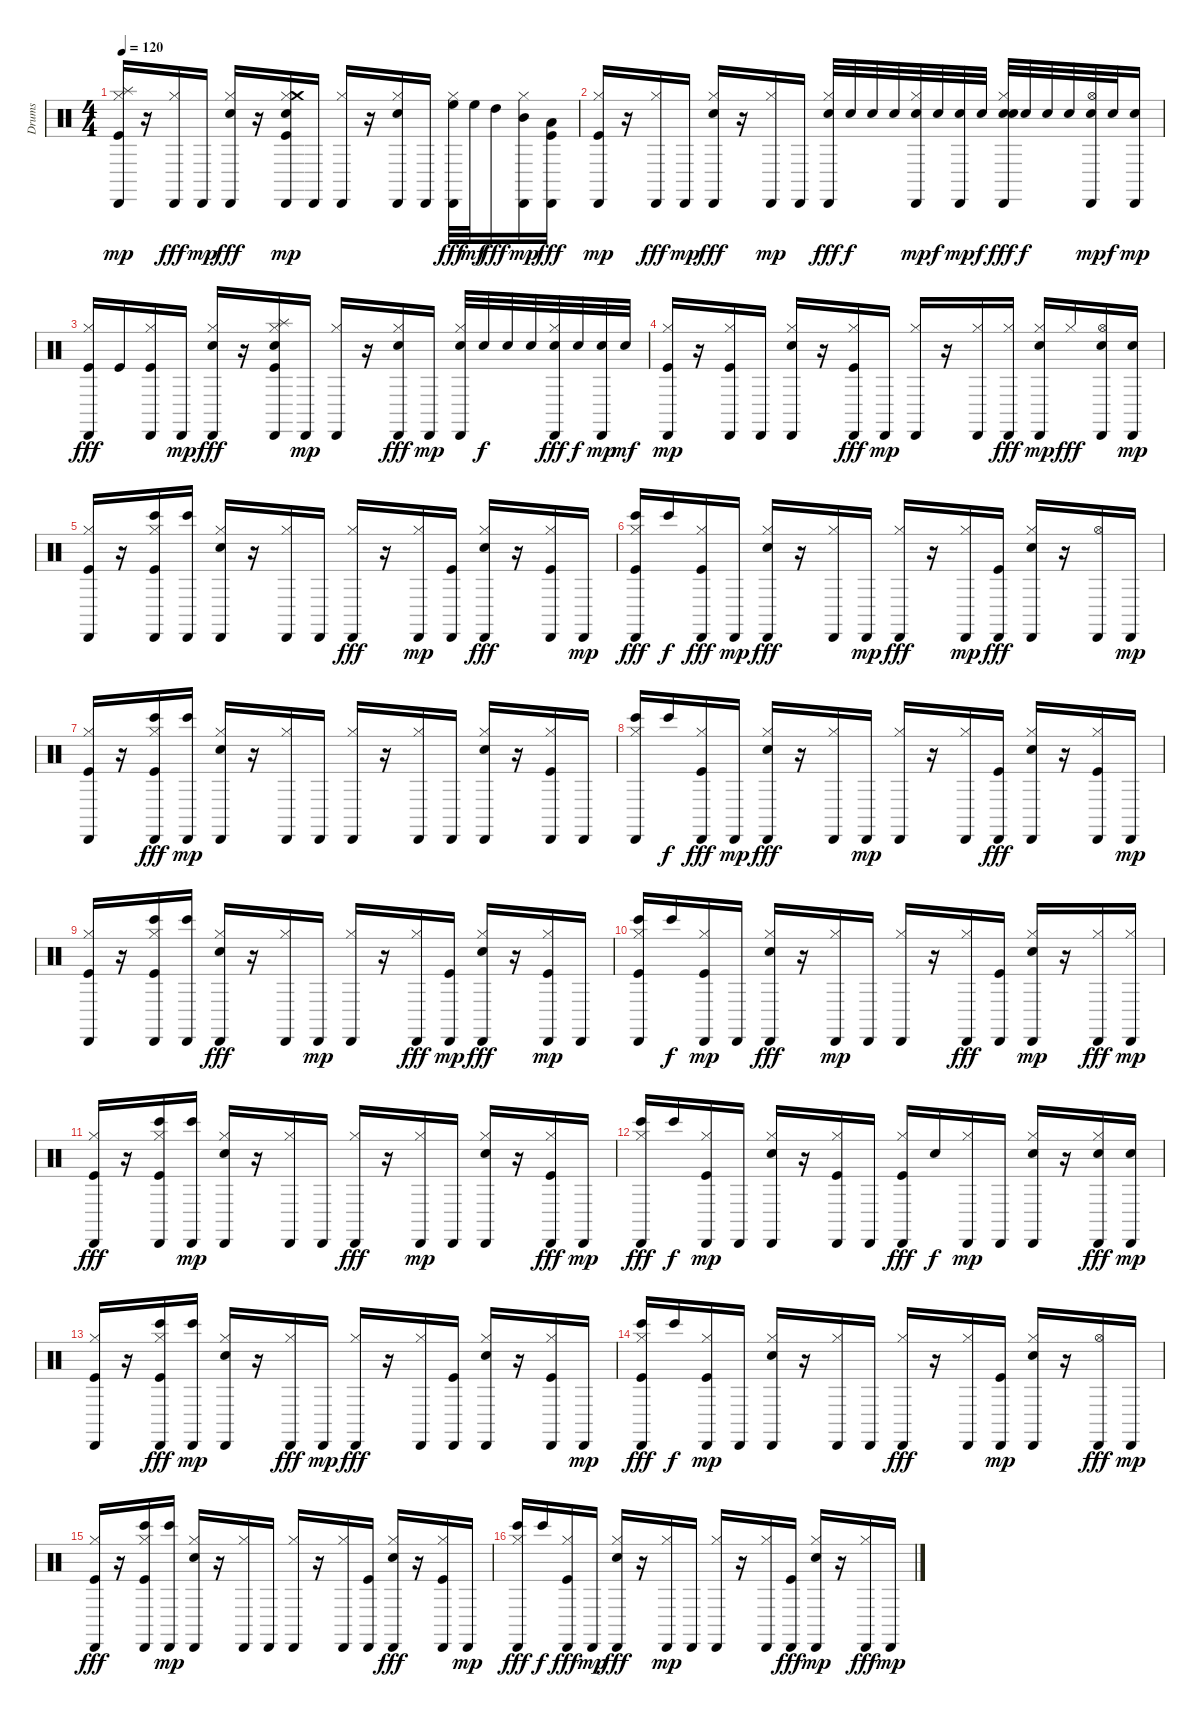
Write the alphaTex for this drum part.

\track ("Drums" "Drums") {instrument percussion}
\staff {score}
\articulation defaults
\ts (4 4)
\tempo 120
\clef neutral
\ks c
("Splash (hit)" "Hi-Hat (closed)" "Kick (hit)" "Cabasa (hit)").16{dy mp} r.16 ("Cabasa (hit)" "Hi-Hat (closed)").16{dy fff} "Cabasa (hit)".16{dy mp} ("Snare (hit) 2" "Cabasa (hit)" "Hi-Hat (closed)").16{dy fff} r.16 ("Hi-Hat (closed)" "Kick (hit)" "Snare (hit) 2" "Crash medium (hit)" "Cabasa (hit)").16{dy mp} "Cabasa (hit)".16 ("Hi-Hat (closed)" "Cabasa (hit)").16 r.16 ("Snare (hit) 2" "Hi-Hat (closed)" "Cabasa (hit)").16 "Cabasa (hit)".16 ("Cabasa (hit)" "High Floor Tom (hit)" "Hi-Hat (closed)").32{dy fff} "High Floor Tom (hit)".32{dy mf} "High Tom (hit)".16{dy fff} ("Mid Tom (hit)" "Hi-Hat (closed)" "Cabasa (hit)").16{dy mp} ("Low Tom (hit)" "Cabasa (hit)" "Kick (hit)").16{dy fff} |
("Hi-Hat (closed)" "Kick (hit)" "Cabasa (hit)").16{dy mp} r.16 ("Cabasa (hit)" "Hi-Hat (closed)").16{dy fff} "Cabasa (hit)".16{dy mp} ("Snare (hit) 2" "Cabasa (hit)" "Hi-Hat (closed)").16{dy fff} r.16 ("Hi-Hat (closed)" "Cabasa (hit)").16{dy mp} "Cabasa (hit)".16 ("Electric Snare (hit)" "Cabasa (hit)" "Hi-Hat (closed)").32{dy fff} "Electric Snare (hit)".32{dy f} "Electric Snare (hit)".32 "Electric Snare (hit)".32 ("Hi-Hat (closed)" "Cabasa (hit)" "Electric Snare (hit)").32{dy mp} "Electric Snare (hit)".32{dy f} ("Electric Snare (hit)" "Cabasa (hit)").32{dy mp} "Electric Snare (hit)".32{dy f} ("Hi-Hat (closed)" "Electric Snare (hit)" "Cabasa (hit)" "Electric Snare (hit)").32{dy fff} "Electric Snare (hit)".32{dy f} "Electric Snare (hit)".32 "Electric Snare (hit)".32 ("Hi-Hat (open)" "Electric Snare (hit)" "Cabasa (hit)").32{dy mp} "Electric Snare (hit)".32{dy f} ("Electric Snare (hit)" "Cabasa (hit)").16{dy mp} |
("Kick (hit)" "Cabasa (hit)" "Hi-Hat (closed)").16{dy fff} "Kick (hit)".16 ("Cabasa (hit)" "Hi-Hat (closed)" "Kick (hit)").16 "Cabasa (hit)".16{dy mp} ("Cabasa (hit)" "Hi-Hat (closed)" "Snare (hit) 2").16{dy fff} r.16 ("Kick (hit)" "Cabasa (hit)" "Snare (hit) 2" "Splash (hit)" "Hi-Hat (closed)").16 "Cabasa (hit)".16{dy mp} ("Hi-Hat (closed)" "Cabasa (hit)").16 r.16 ("Cabasa (hit)" "Hi-Hat (closed)" "Snare (hit) 2").16{dy fff} "Cabasa (hit)".16{dy mp} ("Electric Snare (hit)" "Hi-Hat (closed)" "Cabasa (hit)").32 "Electric Snare (hit)".32{dy f} "Electric Snare (hit)".32 "Electric Snare (hit)".32 ("Electric Snare (hit)" "Cabasa (hit)" "Hi-Hat (closed)").32{dy fff} "Electric Snare (hit)".32{dy f} ("Electric Snare (hit)" "Cabasa (hit)").32{dy mp} "Electric Snare (hit)".32{dy mf} |
("Kick (hit)" "Hi-Hat (closed)" "Cabasa (hit)").16{dy mp} r.16 ("Kick (hit)" "Hi-Hat (closed)" "Cabasa (hit)").16 "Cabasa (hit)".16 ("Hi-Hat (closed)" "Cabasa (hit)" "Snare (hit) 2").16 r.16 ("Kick (hit)" "Cabasa (hit)" "Hi-Hat (closed)").16{dy fff} "Cabasa (hit)".16{dy mp} ("Hi-Hat (closed)" "Cabasa (hit)").16 r.16 ("Hi-Hat (closed)" "Cabasa (hit)").16 ("Cabasa (hit)" "Hi-Hat (closed)").16{dy fff} ("Hi-Hat (closed)" "Snare (hit) 2" "Cabasa (hit)").16{dy mp} "Hi-Hat (closed)".16{dy fff} ("Snare (hit) 2" "Cabasa (hit)" "Hi-Hat (open)").16 ("Snare (hit) 2" "Cabasa (hit)").16{dy mp} |
("Hi-Hat (closed)" "Kick (hit)" "Cabasa (hit)").16 r.16 ("Bongo High (hit)" "Hi-Hat (closed)" "Kick (hit)" "Cabasa (hit)").16 ("Bongo High (hit)" "Cabasa (hit)").16 ("Hi-Hat (closed)" "Cabasa (hit)" "Snare (hit) 2").16 r.16 ("Hi-Hat (closed)" "Cabasa (hit)").16 "Cabasa (hit)".16 ("Cabasa (hit)" "Hi-Hat (closed)").16{dy fff} r.16 ("Hi-Hat (closed)" "Cabasa (hit)").16{dy mp} ("Kick (hit)" "Cabasa (hit)").16 ("Snare (hit) 2" "Cabasa (hit)" "Hi-Hat (closed)").16{dy fff} r.16 ("Hi-Hat (closed)" "Cabasa (hit)" "Kick (hit)").16 "Cabasa (hit)".16{dy mp} |
("Bongo High (hit)" "Kick (hit)" "Cabasa (hit)" "Hi-Hat (closed)").16{dy fff} "Bongo High (hit)".16{dy f} ("Kick (hit)" "Cabasa (hit)" "Hi-Hat (closed)").16{dy fff} "Cabasa (hit)".16{dy mp} ("Snare (hit) 2" "Cabasa (hit)" "Hi-Hat (closed)").16{dy fff} r.16 ("Cabasa (hit)" "Hi-Hat (closed)").16 "Cabasa (hit)".16{dy mp} ("Cabasa (hit)" "Hi-Hat (closed)").16{dy fff} r.16 ("Hi-Hat (closed)" "Cabasa (hit)").16{dy mp} ("Cabasa (hit)" "Kick (hit)").16{dy fff} ("Cabasa (hit)" "Hi-Hat (closed)" "Snare (hit) 2").16 r.16 ("Cabasa (hit)" "Hi-Hat (open)").16 "Cabasa (hit)".16{dy mp} |
("Kick (hit)" "Hi-Hat (closed)" "Cabasa (hit)").16 r.16 ("Cabasa (hit)" "Kick (hit)" "Hi-Hat (closed)" "Bongo High (hit)").16{dy fff} ("Bongo High (hit)" "Cabasa (hit)").16{dy mp} ("Hi-Hat (closed)" "Snare (hit) 2" "Cabasa (hit)").16 r.16 ("Hi-Hat (closed)" "Cabasa (hit)").16 "Cabasa (hit)".16 ("Hi-Hat (closed)" "Cabasa (hit)").16 r.16 ("Hi-Hat (closed)" "Cabasa (hit)").16 "Cabasa (hit)".16 ("Hi-Hat (closed)" "Cabasa (hit)" "Snare (hit) 2").16 r.16 ("Hi-Hat (closed)" "Kick (hit)" "Cabasa (hit)").16 "Cabasa (hit)".16 |
("Hi-Hat (closed)" "Cabasa (hit)" "Bongo High (hit)").16 "Bongo High (hit)".16{dy f} ("Hi-Hat (closed)" "Cabasa (hit)" "Kick (hit)").16{dy fff} "Cabasa (hit)".16{dy mp} ("Cabasa (hit)" "Snare (hit) 2" "Hi-Hat (closed)").16{dy fff} r.16 ("Cabasa (hit)" "Hi-Hat (closed)").16 "Cabasa (hit)".16{dy mp} ("Hi-Hat (closed)" "Cabasa (hit)").16 r.16 ("Hi-Hat (closed)" "Cabasa (hit)").16 ("Cabasa (hit)" "Kick (hit)").16{dy fff} ("Cabasa (hit)" "Snare (hit) 2" "Hi-Hat (closed)").16 r.16 ("Cabasa (hit)" "Kick (hit)" "Hi-Hat (closed)").16 "Cabasa (hit)".16{dy mp} |
("Kick (hit)" "Hi-Hat (closed)" "Cabasa (hit)").16 r.16 ("Hi-Hat (closed)" "Kick (hit)" "Cabasa (hit)" "Bongo High (hit)").16 ("Cabasa (hit)" "Bongo High (hit)").16 ("Snare (hit) 2" "Cabasa (hit)" "Hi-Hat (closed)").16{dy fff} r.16 ("Cabasa (hit)" "Hi-Hat (closed)").16 "Cabasa (hit)".16{dy mp} ("Hi-Hat (closed)" "Cabasa (hit)").16 r.16 ("Cabasa (hit)" "Hi-Hat (closed)").16{dy fff} ("Kick (hit)" "Cabasa (hit)").16{dy mp} ("Snare (hit) 2" "Cabasa (hit)" "Hi-Hat (closed)").16{dy fff} r.16 ("Hi-Hat (closed)" "Kick (hit)" "Cabasa (hit)").16{dy mp} "Cabasa (hit)".16 |
("Kick (hit)" "Hi-Hat (closed)" "Bongo High (hit)" "Cabasa (hit)").16 "Bongo High (hit)".16{dy f} ("Kick (hit)" "Hi-Hat (closed)" "Cabasa (hit)").16{dy mp} "Cabasa (hit)".16 ("Snare (hit) 2" "Cabasa (hit)" "Hi-Hat (closed)").16{dy fff} r.16 ("Hi-Hat (closed)" "Cabasa (hit)").16{dy mp} "Cabasa (hit)".16 ("Hi-Hat (closed)" "Cabasa (hit)").16 r.16 ("Cabasa (hit)" "Hi-Hat (closed)").16{dy fff} ("Cabasa (hit)" "Kick (hit)").16 ("Hi-Hat (closed)" "Snare (hit) 2" "Cabasa (hit)").16{dy mp} r.16 ("Cabasa (hit)" "Hi-Hat (closed)").16{dy fff} ("Hi-Hat (closed)" "Cabasa (hit)").16{dy mp} |
("Kick (hit)" "Cabasa (hit)" "Hi-Hat (closed)").16{dy fff} r.16 ("Kick (hit)" "Cabasa (hit)" "Hi-Hat (closed)" "Bongo High (hit)").16 ("Cabasa (hit)" "Bongo High (hit)").16{dy mp} ("Hi-Hat (closed)" "Snare (hit) 2" "Cabasa (hit)").16 r.16 ("Hi-Hat (closed)" "Cabasa (hit)").16 "Cabasa (hit)".16 ("Cabasa (hit)" "Hi-Hat (closed)").16{dy fff} r.16 ("Hi-Hat (closed)" "Cabasa (hit)").16{dy mp} "Cabasa (hit)".16 ("Snare (hit) 2" "Hi-Hat (closed)" "Cabasa (hit)").16 r.16 ("Cabasa (hit)" "Hi-Hat (closed)" "Kick (hit)").16{dy fff} "Cabasa (hit)".16{dy mp} |
("Bongo High (hit)" "Cabasa (hit)" "Hi-Hat (closed)").16{dy fff} "Bongo High (hit)".16{dy f} ("Hi-Hat (closed)" "Kick (hit)" "Cabasa (hit)").16{dy mp} "Cabasa (hit)".16 ("Hi-Hat (closed)" "Cabasa (hit)" "Snare (hit) 2").16 r.16 ("Hi-Hat (closed)" "Kick (hit)" "Cabasa (hit)").16 "Cabasa (hit)".16 ("Hi-Hat (closed)" "Cabasa (hit)" "Kick (hit)").16{dy fff} "Snare (hit) 2".16{dy f} ("Hi-Hat (closed)" "Cabasa (hit)").16{dy mp} "Cabasa (hit)".16 ("Snare (hit) 2" "Hi-Hat (closed)" "Cabasa (hit)").16 r.16 ("Cabasa (hit)" "Snare (hit) 2" "Hi-Hat (closed)").16{dy fff} ("Snare (hit) 2" "Cabasa (hit)").16{dy mp} |
("Kick (hit)" "Hi-Hat (closed)" "Cabasa (hit)").16 r.16 ("Cabasa (hit)" "Kick (hit)" "Hi-Hat (closed)" "Bongo High (hit)").16{dy fff} ("Bongo High (hit)" "Cabasa (hit)").16{dy mp} ("Hi-Hat (closed)" "Cabasa (hit)" "Snare (hit) 2").16 r.16 ("Cabasa (hit)" "Hi-Hat (closed)").16{dy fff} "Cabasa (hit)".16{dy mp} ("Cabasa (hit)" "Hi-Hat (closed)").16{dy fff} r.16 ("Cabasa (hit)" "Hi-Hat (closed)").16 ("Cabasa (hit)" "Kick (hit)").16 ("Snare (hit) 2" "Cabasa (hit)" "Hi-Hat (closed)").16 r.16 ("Hi-Hat (closed)" "Cabasa (hit)" "Kick (hit)").16 "Cabasa (hit)".16{dy mp} |
("Cabasa (hit)" "Hi-Hat (closed)" "Bongo High (hit)" "Kick (hit)").16{dy fff} "Bongo High (hit)".16{dy f} ("Kick (hit)" "Hi-Hat (closed)" "Cabasa (hit)").16{dy mp} "Cabasa (hit)".16 ("Snare (hit) 2" "Hi-Hat (closed)" "Cabasa (hit)").16 r.16 ("Hi-Hat (closed)" "Cabasa (hit)").16 "Cabasa (hit)".16 ("Cabasa (hit)" "Hi-Hat (closed)").16{dy fff} r.16 ("Cabasa (hit)" "Hi-Hat (closed)").16 ("Kick (hit)" "Cabasa (hit)").16{dy mp} ("Snare (hit) 2" "Hi-Hat (closed)" "Cabasa (hit)").16 r.16 ("Cabasa (hit)" "Hi-Hat (open)").16{dy fff} "Cabasa (hit)".16{dy mp} |
("Hi-Hat (closed)" "Cabasa (hit)" "Kick (hit)").16{dy fff} r.16 ("Cabasa (hit)" "Kick (hit)" "Hi-Hat (closed)" "Bongo High (hit)").16 ("Bongo High (hit)" "Cabasa (hit)").16{dy mp} ("Snare (hit) 2" "Hi-Hat (closed)" "Cabasa (hit)").16 r.16 ("Hi-Hat (closed)" "Cabasa (hit)").16 "Cabasa (hit)".16 ("Hi-Hat (closed)" "Cabasa (hit)").16 r.16 ("Hi-Hat (closed)" "Cabasa (hit)").16 ("Kick (hit)" "Cabasa (hit)").16 ("Cabasa (hit)" "Hi-Hat (closed)" "Snare (hit) 2").16{dy fff} r.16 ("Cabasa (hit)" "Kick (hit)" "Hi-Hat (closed)").16 "Cabasa (hit)".16{dy mp} |
("Cabasa (hit)" "Bongo High (hit)" "Hi-Hat (closed)").16{dy fff} "Bongo High (hit)".16{dy f} ("Hi-Hat (closed)" "Cabasa (hit)" "Kick (hit)").16{dy fff} "Cabasa (hit)".16{dy mp} ("Cabasa (hit)" "Hi-Hat (closed)" "Snare (hit) 2").16{dy fff} r.16 ("Hi-Hat (closed)" "Cabasa (hit)").16{dy mp} "Cabasa (hit)".16 ("Hi-Hat (closed)" "Cabasa (hit)").16 r.16 ("Hi-Hat (closed)" "Cabasa (hit)").16 ("Cabasa (hit)" "Kick (hit)").16{dy fff} ("Snare (hit) 2" "Hi-Hat (closed)" "Cabasa (hit)").16{dy mp} r.16 ("Cabasa (hit)" "Hi-Hat (closed)").16{dy fff} "Cabasa (hit)".16{dy mp}
